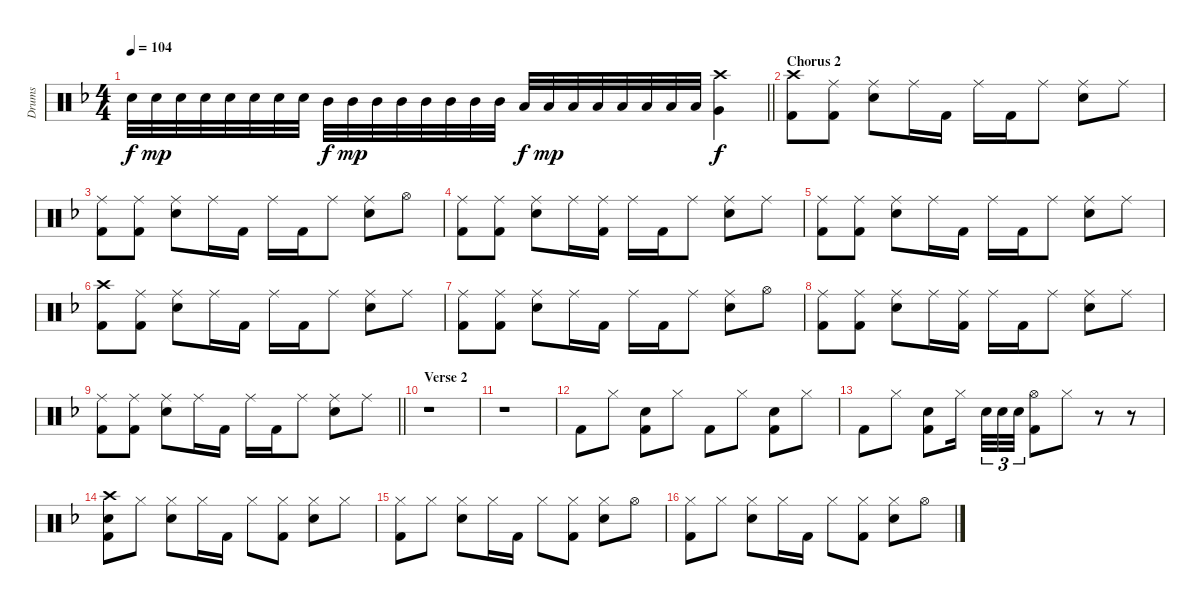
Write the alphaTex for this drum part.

\track ("Drums" "Drums") {instrument percussion}
\staff {score}
\articulation defaults
\ts (4 4)
\tempo 104
\clef neutral
\barLineRight lightlight
\ks dminor "Electric Snare (hit)".32{dy f} "Electric Snare (hit)".32{dy mp} "Electric Snare (hit)".32 "Electric Snare (hit)".32 "Electric Snare (hit)".32 "Electric Snare (hit)".32 "Electric Snare (hit)".32 "Electric Snare (hit)".32 "Mid Tom (hit)".32{dy f} "Mid Tom (hit)".32{dy mp} "Mid Tom (hit)".32 "Mid Tom (hit)".32 "Mid Tom (hit)".32 "Mid Tom (hit)".32 "Mid Tom (hit)".32 "Mid Tom (hit)".32 "Low Tom (hit)".32{dy f} "Low Tom (hit)".32{dy mp} "Low Tom (hit)".32 "Low Tom (hit)".32 "Low Tom (hit)".32 "Low Tom (hit)".32 "Low Tom (hit)".32 "Low Tom (hit)".32
("Very Low Tom (hit)" "Crash high (hit)").4{dy f} |
\section ("" "Chorus 2")
("Crash high (hit)" "Kick (hit) 2").8 ("Ride (middle)" "Kick (hit) 2").8 ("Ride (middle)" "Electric Snare (hit)").8 "Ride (middle)".16 "Kick (hit) 2".16 "Ride (middle)".16 "Kick (hit) 2".16 "Ride (middle)".8 ("Ride (middle)" "Electric Snare (hit)").8 "Ride (middle)".8 |
("Ride (middle)" "Kick (hit) 2").8 ("Ride (middle)" "Kick (hit) 2").8 ("Ride (middle)" "Electric Snare (hit)").8 "Ride (middle)".16 "Kick (hit) 2".16 "Ride (middle)".16 "Kick (hit) 2".16 "Ride (middle)".8 ("Ride (middle)" "Electric Snare (hit)").8 "Hi-Hat (open)".8 |
("Ride (middle)" "Kick (hit) 2").8 ("Ride (middle)" "Kick (hit) 2").8 ("Ride (middle)" "Electric Snare (hit)").8 "Ride (middle)".16 ("Ride (middle)" "Kick (hit) 2").16 "Ride (middle)".16 "Kick (hit) 2".16 "Ride (middle)".8 ("Ride (middle)" "Electric Snare (hit)").8 "Ride (middle)".8 |
("Ride (middle)" "Kick (hit) 2").8 ("Ride (middle)" "Kick (hit) 2").8 ("Ride (middle)" "Electric Snare (hit)").8 "Ride (middle)".16 "Kick (hit) 2".16 "Ride (middle)".16 "Kick (hit) 2".16 "Ride (middle)".8 ("Ride (middle)" "Electric Snare (hit)").8 "Ride (middle)".8 |
("Crash high (hit)" "Kick (hit) 2").8 ("Ride (middle)" "Kick (hit) 2").8 ("Ride (middle)" "Electric Snare (hit)").8 "Ride (middle)".16 "Kick (hit) 2".16 "Ride (middle)".16 "Kick (hit) 2".16 "Ride (middle)".8 ("Ride (middle)" "Electric Snare (hit)").8 "Ride (middle)".8 |
("Ride (middle)" "Kick (hit) 2").8 ("Ride (middle)" "Kick (hit) 2").8 ("Ride (middle)" "Electric Snare (hit)").8 "Ride (middle)".16 "Kick (hit) 2".16 "Ride (middle)".16 "Kick (hit) 2".16 "Ride (middle)".8 ("Ride (middle)" "Electric Snare (hit)").8 "Hi-Hat (open)".8 |
("Ride (middle)" "Kick (hit) 2").8 ("Ride (middle)" "Kick (hit) 2").8 ("Ride (middle)" "Electric Snare (hit)").8 "Ride (middle)".16 ("Ride (middle)" "Kick (hit) 2").16 "Ride (middle)".16 "Kick (hit) 2".16 "Ride (middle)".8 ("Ride (middle)" "Electric Snare (hit)").8 "Ride (middle)".8 |
\barLineRight lightlight
("Ride (middle)" "Kick (hit) 2").8 ("Ride (middle)" "Kick (hit) 2").8 ("Ride (middle)" "Electric Snare (hit)").8 "Ride (middle)".16 "Kick (hit) 2".16 "Ride (middle)".16 "Kick (hit) 2".16 "Ride (middle)".8 ("Ride (middle)" "Electric Snare (hit)").8 "Ride (middle)".8 |
\section ("" "Verse 2")
r.1 |
r.1 |
"Kick (hit) 2".8 "Hi-Hat (closed)".8 ("Kick (hit) 2" "Hand Clap (hit)").8 "Hi-Hat (closed)".8 "Kick (hit) 2".8 "Hi-Hat (closed)".8 ("Kick (hit) 2" "Hand Clap (hit)").8 "Hi-Hat (closed)".8 |
"Kick (hit) 2".8 "Hi-Hat (closed)".8 ("Kick (hit) 2" "Hand Clap (hit)").8 "Hi-Hat (closed)".16{beam splitsecondary} "Electric Snare (hit)".32{tu (3 2)} "Electric Snare (hit)".32{tu (3 2)} "Electric Snare (hit)".32{tu (3 2)} ("Hi-Hat (open)" "Kick (hit) 2").8 "Hi-Hat (closed)".8 r.8 r.8 |
("Crash high (hit)" "Hand Clap (hit)" "Kick (hit) 2").8 "Hi-Hat (closed)".8 ("Hi-Hat (closed)" "Electric Snare (hit)").8 "Hi-Hat (closed)".16 "Kick (hit) 2".16 "Hi-Hat (closed)".8 ("Hi-Hat (closed)" "Kick (hit) 2").8 ("Hi-Hat (closed)" "Electric Snare (hit)").8 "Hi-Hat (closed)".8 |
("Hi-Hat (closed)" "Kick (hit) 2").8 "Hi-Hat (closed)".8 ("Hi-Hat (closed)" "Electric Snare (hit)").8 "Hi-Hat (closed)".16 "Kick (hit) 2".16 "Hi-Hat (closed)".8 ("Hi-Hat (closed)" "Kick (hit) 2").8 ("Hi-Hat (closed)" "Electric Snare (hit)").8 "Hi-Hat (open)".8 |
("Hi-Hat (closed)" "Kick (hit) 2").8 "Hi-Hat (closed)".8 ("Hi-Hat (closed)" "Electric Snare (hit)").8 "Hi-Hat (closed)".16 "Kick (hit) 2".16 "Hi-Hat (closed)".8 ("Hi-Hat (closed)" "Kick (hit) 2").8 ("Hi-Hat (closed)" "Electric Snare (hit)").8 "Hi-Hat (open)".8
